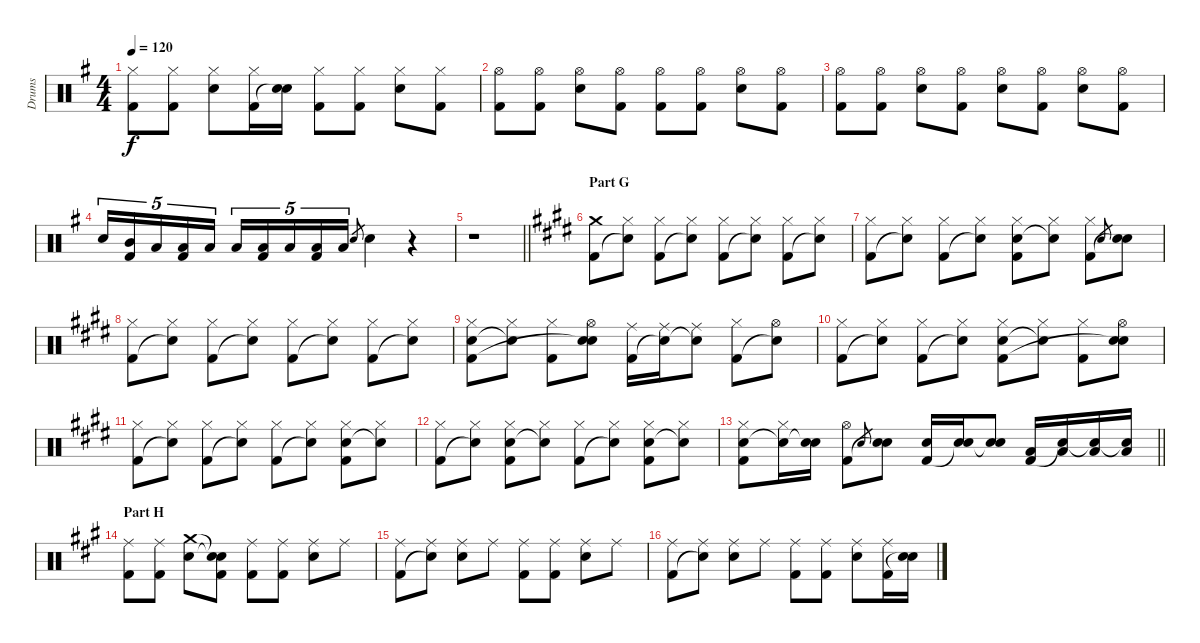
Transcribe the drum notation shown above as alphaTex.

\track ("Drums" "Drums") {instrument percussion}
\staff {score}
\articulation defaults
\ts (4 4)
\tempo 120
\clef neutral
\ks g
("Hi-Hat (closed)" "Kick (hit) 2").8{dy f} ("Hi-Hat (closed)" "Kick (hit) 2").8 ("Hi-Hat (closed)" "Electric Snare (hit)").8 ("Hi-Hat (closed)" "Kick (hit) 2").16 ("Electric Snare (hit)" "Snare (hit)"{t}).16 ("Hi-Hat (closed)" "Kick (hit) 2").8 ("Hi-Hat (closed)" "Kick (hit) 2").8 ("Hi-Hat (closed)" "Electric Snare (hit)").8 ("Hi-Hat (closed)" "Kick (hit) 2").8 |
("Hi-Hat (open)" "Kick (hit) 2").8 ("Hi-Hat (open)" "Kick (hit) 2").8 ("Hi-Hat (open)" "Electric Snare (hit)").8 ("Hi-Hat (open)" "Kick (hit) 2").8 ("Hi-Hat (open)" "Kick (hit) 2").8 ("Hi-Hat (open)" "Kick (hit) 2").8 ("Hi-Hat (open)" "Electric Snare (hit)").8 ("Hi-Hat (open)" "Kick (hit) 2").8 |
("Hi-Hat (open)" "Kick (hit) 2").8 ("Hi-Hat (open)" "Kick (hit) 2").8 ("Hi-Hat (open)" "Electric Snare (hit)").8 ("Hi-Hat (open)" "Kick (hit) 2").8 ("Hi-Hat (open)" "Electric Snare (hit)").8 ("Hi-Hat (open)" "Kick (hit) 2").8 ("Hi-Hat (open)" "Electric Snare (hit)").8 ("Hi-Hat (open)" "Kick (hit) 2").8 |
"Electric Snare (hit)".16{tu (5 4)} ("Mid Tom (hit)" "Kick (hit) 2").16{tu (5 4)} "Low Floor Tom (hit)".16{tu (5 4)} ("Low Tom (hit)" "Kick (hit) 2").16{tu (5 4)} "Low Floor Tom (hit)".16{tu (5 4)} "Low Tom (hit)".16{tu (5 4)} ("Low Tom (hit)" "Kick (hit) 2").16{tu (5 4)} "Low Floor Tom (hit)".16{tu (5 4)} ("Low Tom (hit)" "Kick (hit) 2").16{tu (5 4)} "Low Floor Tom (hit)".16{tu (5 4)} "Electric Snare (hit)".8{gr} "Electric Snare (hit)".4 r.4 |
\barLineRight lightlight
r.1 |
\section ("" "Part G")
\ks e
("Crash medium (hit)" "Kick (hit) 2").8 ("Hi-Hat (closed)" "Snare (hit)"{t}).8 ("Hi-Hat (closed)" "Kick (hit) 2").8 ("Hi-Hat (closed)" "Snare (hit)"{t}).8 ("Hi-Hat (closed)" "Kick (hit) 2").8 ("Hi-Hat (closed)" "Snare (hit)"{t}).8 ("Hi-Hat (closed)" "Kick (hit) 2").8 ("Hi-Hat (closed)" "Snare (hit)"{t}).8 |
("Hi-Hat (closed)" "Kick (hit) 2").8 ("Hi-Hat (closed)" "Snare (hit)"{t}).8 ("Hi-Hat (closed)" "Kick (hit) 2").8 ("Hi-Hat (closed)" "Snare (hit)"{t}).8 ("Hi-Hat (closed)" "Electric Snare (hit)" "Kick (hit) 2").8 ("Hi-Hat (closed)" "Snare (hit)"{t}).8 ("Hi-Hat (closed)" "Kick (hit) 2").8 "Electric Snare (hit)".8{gr} ("Electric Snare (hit)" "Snare (hit)"{t}).8 |
("Hi-Hat (closed)" "Kick (hit) 2").8 ("Hi-Hat (closed)" "Snare (hit)"{t}).8 ("Hi-Hat (closed)" "Kick (hit) 2").8 ("Hi-Hat (closed)" "Snare (hit)"{t}).8 ("Hi-Hat (closed)" "Kick (hit) 2").8 ("Hi-Hat (closed)" "Snare (hit)"{t}).8 ("Hi-Hat (closed)" "Kick (hit) 2").8 ("Hi-Hat (closed)" "Snare (hit)"{t}).8 |
("Hi-Hat (closed)" "Electric Snare (hit)" "Kick (hit) 2").8 ("Hi-Hat (closed)" "Snare (hit)"{t}).8 ("Hi-Hat (closed)" "Kick (hit) 2").8 ("Hi-Hat (open)" "Electric Snare (hit)" "Snare (hit)"{t}).8 ("Ride (middle)" "Kick (hit) 2").16 ("Ride (middle)" "Snare (hit)"{t}).16 ("Ride (middle)" "Snare (hit)"{t}).8 ("Hi-Hat (closed)" "Kick (hit) 2").8 ("Hi-Hat (open)" "Snare (hit)"{t}).8 |
("Hi-Hat (closed)" "Kick (hit) 2").8 ("Hi-Hat (closed)" "Snare (hit)"{t}).8 ("Hi-Hat (closed)" "Kick (hit) 2").8 ("Hi-Hat (closed)" "Snare (hit)"{t}).8 ("Hi-Hat (closed)" "Electric Snare (hit)" "Kick (hit) 2").8 ("Hi-Hat (closed)" "Snare (hit)"{t}).8 ("Hi-Hat (closed)" "Kick (hit) 2").8 ("Hi-Hat (open)" "Electric Snare (hit)" "Snare (hit)"{t}).8 |
("Hi-Hat (closed)" "Kick (hit) 2").8 ("Hi-Hat (closed)" "Snare (hit)"{t}).8 ("Hi-Hat (closed)" "Kick (hit) 2").8 ("Hi-Hat (closed)" "Snare (hit)"{t}).8 ("Hi-Hat (closed)" "Kick (hit) 2").8 ("Hi-Hat (closed)" "Snare (hit)"{t}).8 ("Hi-Hat (closed)" "Electric Snare (hit)" "Kick (hit) 2").8 ("Hi-Hat (closed)" "Snare (hit)"{t}).8 |
("Hi-Hat (closed)" "Kick (hit) 2").8 ("Hi-Hat (closed)" "Snare (hit)"{t}).8 ("Hi-Hat (closed)" "Electric Snare (hit)" "Kick (hit) 2").8 ("Hi-Hat (closed)" "Snare (hit)"{t}).8 ("Hi-Hat (closed)" "Kick (hit) 2").8 ("Hi-Hat (closed)" "Snare (hit)"{t}).8 ("Hi-Hat (closed)" "Electric Snare (hit)" "Kick (hit) 2").8 ("Hi-Hat (closed)" "Snare (hit)"{t}).8 |
\barLineRight lightlight
("Hi-Hat (closed)" "Electric Snare (hit)" "Kick (hit) 2").8 ("Hi-Hat (closed)" "Snare (hit)"{t}).16 ("Electric Snare (hit)" "Snare (hit)"{t}).16 ("Hi-Hat (open)" "Kick (hit) 2").8 "Electric Snare (hit)".8{gr} ("Electric Snare (hit)" "Snare (hit)"{t}).8 ("Electric Snare (hit)" "Kick (hit) 2").16 ("Electric Snare (hit)" "Snare (hit)"{t}).16 ("Electric Snare (hit)" "Snare (hit)"{t}).8 ("Low Tom (hit)" "Kick (hit) 2").16 ("Low Tom (hit)" "Snare (hit)"{t}).16 ("Low Floor Tom (hit)" "Snare (hit)"{t}).16 ("Low Floor Tom (hit)" "Snare (hit)"{t}).16 |
\section ("" "Part H")
\ks a
("Ride (middle)" "Kick (hit) 2").8 ("Ride (middle)" "Kick (hit) 2").8 ("Crash medium (hit)" "Electric Snare (hit)").8 ("Snare (hit)"{t} "Snare (hit)"{t} "Kick (hit) 2").8 ("Ride (middle)" "Kick (hit) 2").8 ("Ride (middle)" "Kick (hit) 2").8 ("Ride (middle)" "Electric Snare (hit)").8 "Ride (middle)".8 |
("Ride (middle)" "Kick (hit) 2").8 ("Ride (middle)" "Snare (hit)"{t}).8 ("Ride (middle)" "Electric Snare (hit)").8 "Ride (middle)".8 ("Ride (middle)" "Kick (hit) 2").8 ("Ride (middle)" "Kick (hit) 2").8 ("Ride (middle)" "Electric Snare (hit)").8 "Ride (middle)".8 |
("Ride (middle)" "Kick (hit) 2").8 ("Ride (middle)" "Snare (hit)"{t}).8 ("Ride (middle)" "Electric Snare (hit)").8 "Ride (middle)".8 ("Ride (middle)" "Kick (hit) 2").8 ("Ride (middle)" "Kick (hit) 2").8 ("Ride (middle)" "Electric Snare (hit)").8 ("Ride (middle)" "Kick (hit) 2").16 ("Snare (hit) 2" "Snare (hit)"{t}).16
